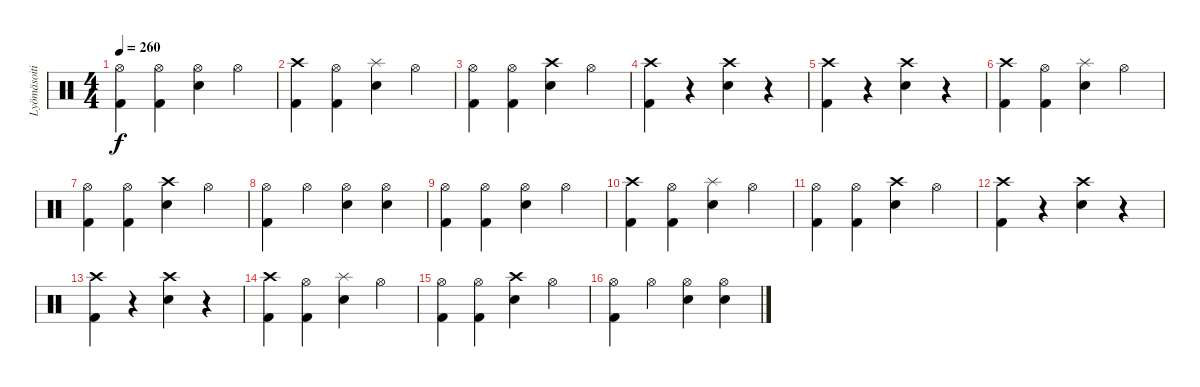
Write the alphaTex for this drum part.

\track ("Lyömäsoitin" "Lyömäsoiti") {instrument percussion}
\staff {score}
\articulation defaults
\ts (4 4)
\tempo 260
\clef neutral
\ks c
("Hi-Hat (open)" "Kick (hit) 2").4{dy f} ("Hi-Hat (open)" "Kick (hit) 2").4 ("Hi-Hat (open)" "Electric Snare (hit)").4 "Hi-Hat (open)".4 |
("Crash high (hit)" "Kick (hit) 2").4 ("Hi-Hat (open)" "Kick (hit) 2").4 ("Splash (hit)" "Electric Snare (hit)").4 "Hi-Hat (open)".4 |
("Hi-Hat (open)" "Kick (hit) 2").4 ("Hi-Hat (open)" "Kick (hit) 2").4 ("Crash high (hit)" "Electric Snare (hit)").4 "Hi-Hat (open)".4 |
("Crash high (hit)" "Kick (hit) 2").4 r.4 ("Crash high (hit)" "Electric Snare (hit)").4 r.4 |
("Crash high (hit)" "Kick (hit) 2").4 r.4 ("Crash high (hit)" "Electric Snare (hit)").4 r.4 |
("Crash high (hit)" "Kick (hit) 2").4 ("Hi-Hat (open)" "Kick (hit) 2").4 ("Splash (hit)" "Electric Snare (hit)").4 "Hi-Hat (open)".4 |
("Hi-Hat (open)" "Kick (hit) 2").4 ("Hi-Hat (open)" "Kick (hit) 2").4 ("Crash high (hit)" "Electric Snare (hit)").4 "Hi-Hat (open)".4 |
("Hi-Hat (open)" "Kick (hit) 2").4 "Hi-Hat (open)".4 ("Hi-Hat (open)" "Electric Snare (hit)").4 ("Hi-Hat (open)" "Electric Snare (hit)").4 |
("Hi-Hat (open)" "Kick (hit) 2").4 ("Hi-Hat (open)" "Kick (hit) 2").4 ("Hi-Hat (open)" "Electric Snare (hit)").4 "Hi-Hat (open)".4 |
("Crash high (hit)" "Kick (hit) 2").4 ("Hi-Hat (open)" "Kick (hit) 2").4 ("Splash (hit)" "Electric Snare (hit)").4 "Hi-Hat (open)".4 |
("Hi-Hat (open)" "Kick (hit) 2").4 ("Hi-Hat (open)" "Kick (hit) 2").4 ("Crash high (hit)" "Electric Snare (hit)").4 "Hi-Hat (open)".4 |
("Crash high (hit)" "Kick (hit) 2").4 r.4 ("Crash high (hit)" "Electric Snare (hit)").4 r.4 |
("Crash high (hit)" "Kick (hit) 2").4 r.4 ("Crash high (hit)" "Electric Snare (hit)").4 r.4 |
("Crash high (hit)" "Kick (hit) 2").4 ("Hi-Hat (open)" "Kick (hit) 2").4 ("Splash (hit)" "Electric Snare (hit)").4 "Hi-Hat (open)".4 |
("Hi-Hat (open)" "Kick (hit) 2").4 ("Hi-Hat (open)" "Kick (hit) 2").4 ("Crash high (hit)" "Electric Snare (hit)").4 "Hi-Hat (open)".4 |
("Hi-Hat (open)" "Kick (hit) 2").4 "Hi-Hat (open)".4 ("Hi-Hat (open)" "Electric Snare (hit)").4 ("Hi-Hat (open)" "Electric Snare (hit)").4
